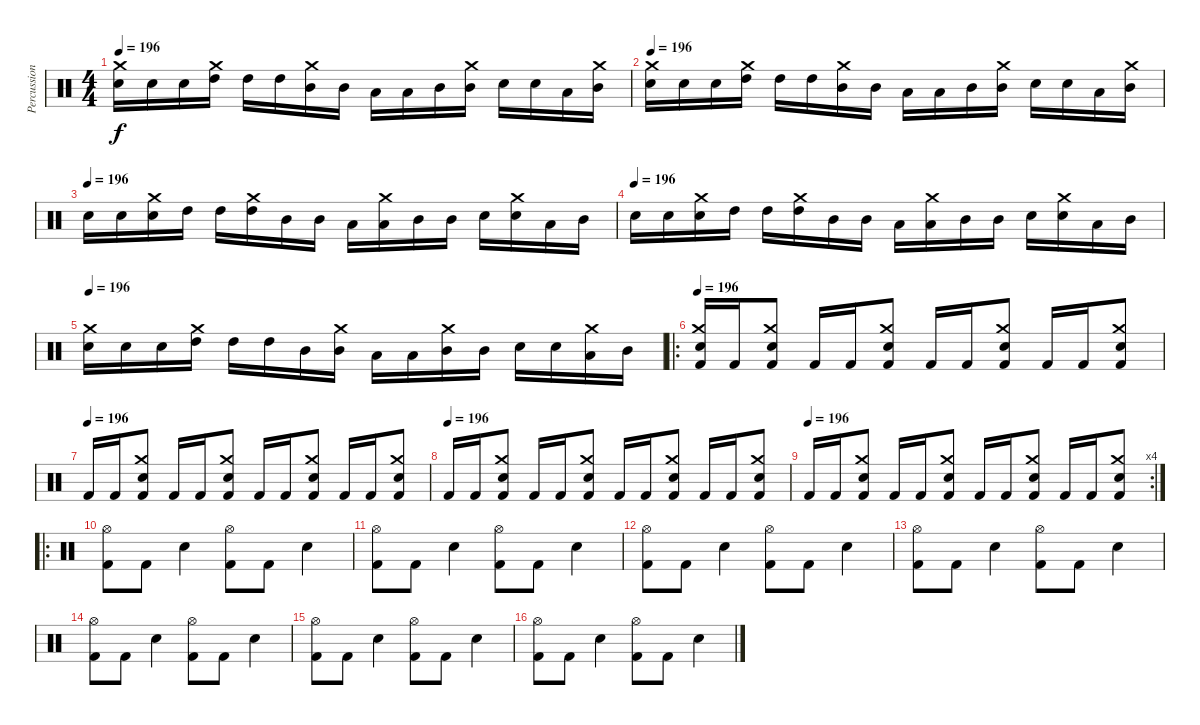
\track ("Percussions" "Percussion") {instrument percussion}
\staff {score}
\articulation defaults
\ts (4 4)
\tempo 196
\clef neutral
\ks c
("Snare (hit) 2" "Crash medium (hit)").16{dy f} "Snare (hit) 2".16 "Snare (hit) 2".16 ("High Tom (hit)" "Crash medium (hit)").16 "High Tom (hit)".16 "High Tom (hit)".16 ("Mid Tom (hit)" "Crash medium (hit)").16 "Mid Tom (hit)".16 "Low Tom (hit)".16 "Low Tom (hit)".16 "Mid Tom (hit)".16 ("Mid Tom (hit)" "Crash medium (hit)").16 "Snare (hit) 2".16 "Snare (hit) 2".16 "Low Tom (hit)".16 ("Mid Tom (hit)" "Crash medium (hit)").16 |
\tempo 196
("Snare (hit) 2" "Crash medium (hit)").16 "Snare (hit) 2".16 "Snare (hit) 2".16 ("High Tom (hit)" "Crash medium (hit)").16 "High Tom (hit)".16 "High Tom (hit)".16 ("Mid Tom (hit)" "Crash medium (hit)").16 "Mid Tom (hit)".16 "Low Tom (hit)".16 "Low Tom (hit)".16 "Mid Tom (hit)".16 ("Mid Tom (hit)" "Crash medium (hit)").16 "Snare (hit) 2".16 "Snare (hit) 2".16 "Low Tom (hit)".16 ("Mid Tom (hit)" "Crash medium (hit)").16 |
\tempo (196)
"Snare (hit) 2".16 "Snare (hit) 2".16 ("Snare (hit) 2" "Crash medium (hit)").16 "High Tom (hit)".16 "High Tom (hit)".16 ("High Tom (hit)" "Crash medium (hit)").16 "Mid Tom (hit)".16 "Mid Tom (hit)".16 "Low Tom (hit)".16 ("Low Tom (hit)" "Crash medium (hit)").16 "Mid Tom (hit)".16 "Mid Tom (hit)".16 "Snare (hit) 2".16 ("Snare (hit) 2" "Crash medium (hit)").16 "Low Tom (hit)".16 "Mid Tom (hit)".16 |
\tempo (196)
"Snare (hit) 2".16 "Snare (hit) 2".16 ("Snare (hit) 2" "Crash medium (hit)").16 "High Tom (hit)".16 "High Tom (hit)".16 ("High Tom (hit)" "Crash medium (hit)").16 "Mid Tom (hit)".16 "Mid Tom (hit)".16 "Low Tom (hit)".16 ("Low Tom (hit)" "Crash medium (hit)").16 "Mid Tom (hit)".16 "Mid Tom (hit)".16 "Snare (hit) 2".16 ("Snare (hit) 2" "Crash medium (hit)").16 "Low Tom (hit)".16 "Mid Tom (hit)".16 |
\tempo 196
("Snare (hit) 2" "Crash medium (hit)").16 "Snare (hit) 2".16 "Snare (hit) 2".16 ("High Tom (hit)" "Crash medium (hit)").16 "High Tom (hit)".16 "High Tom (hit)".16 "Mid Tom (hit)".16 ("Mid Tom (hit)" "Crash medium (hit)").16 "Low Tom (hit)".16 "Low Tom (hit)".16 ("Mid Tom (hit)" "Crash medium (hit)").16 "Mid Tom (hit)".16 "Snare (hit) 2".16 "Snare (hit) 2".16 ("Low Tom (hit)" "Crash medium (hit)").16 "Mid Tom (hit)".16 |
\ro
\tempo 196
("Kick (hit) 2" "Snare (hit) 2" "Crash medium (hit)").16 "Kick (hit) 2".16 ("Kick (hit) 2" "Snare (hit) 2" "Crash medium (hit)").8 "Kick (hit) 2".16 "Kick (hit) 2".16 ("Kick (hit) 2" "Snare (hit) 2" "Crash medium (hit)").8 "Kick (hit) 2".16 "Kick (hit) 2".16 ("Kick (hit) 2" "Snare (hit) 2" "Crash medium (hit)").8 "Kick (hit) 2".16 "Kick (hit) 2".16 ("Kick (hit) 2" "Snare (hit) 2" "Crash medium (hit)").8 |
\tempo (196)
"Kick (hit) 2".16 "Kick (hit) 2".16 ("Kick (hit) 2" "Snare (hit) 2" "Crash medium (hit)").8 "Kick (hit) 2".16 "Kick (hit) 2".16 ("Kick (hit) 2" "Snare (hit) 2" "Crash medium (hit)").8 "Kick (hit) 2".16 "Kick (hit) 2".16 ("Kick (hit) 2" "Snare (hit) 2" "Crash medium (hit)").8 "Kick (hit) 2".16 "Kick (hit) 2".16 ("Kick (hit) 2" "Snare (hit) 2" "Crash medium (hit)").8 |
\tempo (196)
"Kick (hit) 2".16 "Kick (hit) 2".16 ("Kick (hit) 2" "Snare (hit) 2" "Crash medium (hit)").8 "Kick (hit) 2".16 "Kick (hit) 2".16 ("Kick (hit) 2" "Snare (hit) 2" "Crash medium (hit)").8 "Kick (hit) 2".16 "Kick (hit) 2".16 ("Kick (hit) 2" "Snare (hit) 2" "Crash medium (hit)").8 "Kick (hit) 2".16 "Kick (hit) 2".16 ("Kick (hit) 2" "Snare (hit) 2" "Crash medium (hit)").8 |
\rc 4
\tempo (196)
"Kick (hit) 2".16 "Kick (hit) 2".16 ("Kick (hit) 2" "Snare (hit) 2" "Crash medium (hit)").8 "Kick (hit) 2".16 "Kick (hit) 2".16 ("Kick (hit) 2" "Snare (hit) 2" "Crash medium (hit)").8 "Kick (hit) 2".16 "Kick (hit) 2".16 ("Kick (hit) 2" "Snare (hit) 2" "Crash medium (hit)").8 "Kick (hit) 2".16 "Kick (hit) 2".16 ("Kick (hit) 2" "Snare (hit) 2" "Crash medium (hit)").8 |
\ro
("Kick (hit) 2" "Hi-Hat (open)").8 "Kick (hit) 2".8 "Snare (hit) 2".4 ("Kick (hit) 2" "Hi-Hat (open)").8 "Kick (hit) 2".8 "Snare (hit) 2".4 |
("Kick (hit) 2" "Hi-Hat (open)").8 "Kick (hit) 2".8 "Snare (hit) 2".4 ("Kick (hit) 2" "Hi-Hat (open)").8 "Kick (hit) 2".8 "Snare (hit) 2".4 |
("Kick (hit) 2" "Hi-Hat (open)").8 "Kick (hit) 2".8 "Snare (hit) 2".4 ("Kick (hit) 2" "Hi-Hat (open)").8 "Kick (hit) 2".8 "Snare (hit) 2".4 |
("Kick (hit) 2" "Hi-Hat (open)").8 "Kick (hit) 2".8 "Snare (hit) 2".4 ("Kick (hit) 2" "Hi-Hat (open)").8 "Kick (hit) 2".8 "Snare (hit) 2".4 |
("Kick (hit) 2" "Hi-Hat (open)").8 "Kick (hit) 2".8 "Snare (hit) 2".4 ("Kick (hit) 2" "Hi-Hat (open)").8 "Kick (hit) 2".8 "Snare (hit) 2".4 |
("Kick (hit) 2" "Hi-Hat (open)").8 "Kick (hit) 2".8 "Snare (hit) 2".4 ("Kick (hit) 2" "Hi-Hat (open)").8 "Kick (hit) 2".8 "Snare (hit) 2".4 |
("Kick (hit) 2" "Hi-Hat (open)").8 "Kick (hit) 2".8 "Snare (hit) 2".4 ("Kick (hit) 2" "Hi-Hat (open)").8 "Kick (hit) 2".8 "Snare (hit) 2".4
